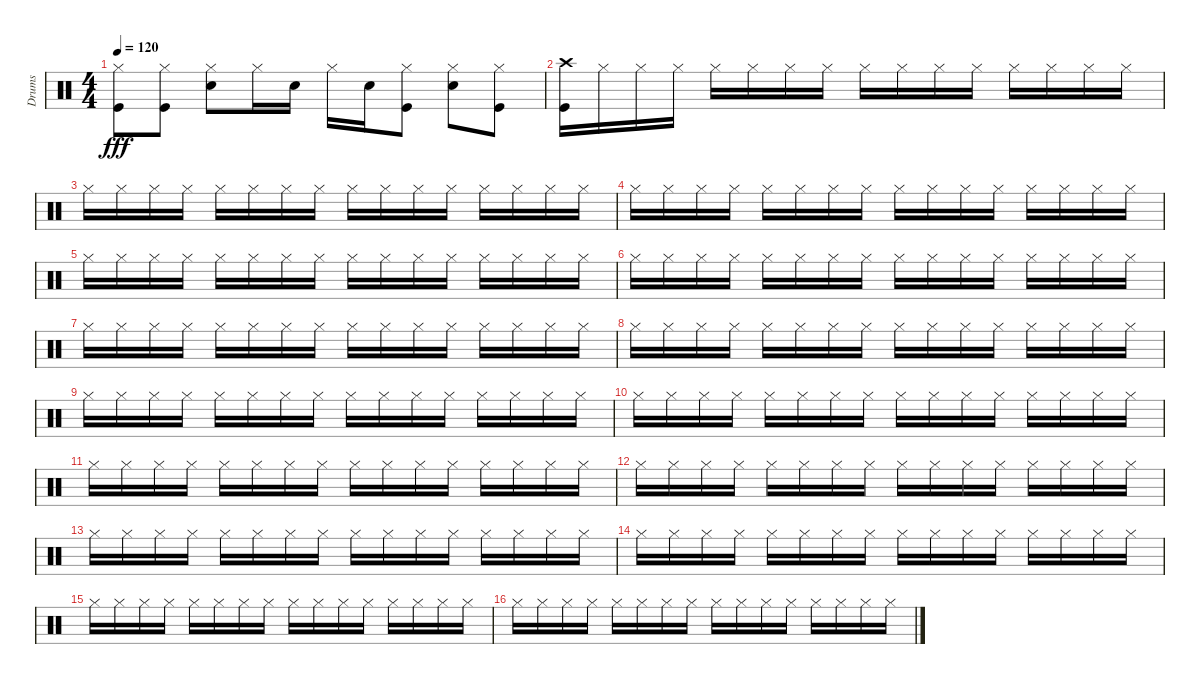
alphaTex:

\track ("Drums" "Drums") {instrument percussion}
\staff {score}
\articulation defaults
\ts (4 4)
\tempo 120
\clef neutral
\ks c
("Hi-Hat (closed)" "Kick (hit)").8{dy fff} ("Hi-Hat (closed)" "Kick (hit)").8 ("Hi-Hat (closed)" "Snare (hit) 2").8 "Hi-Hat (closed)".16 "Snare (hit) 2".16 "Hi-Hat (closed)".16 "Snare (hit) 2".16 ("Hi-Hat (closed)" "Kick (hit)").8 ("Hi-Hat (closed)" "Snare (hit) 2").8 ("Hi-Hat (closed)" "Kick (hit)").8 |
("Crash high (hit)" "Kick (hit)").16 "Hi-Hat (closed)".16 "Hi-Hat (closed)".16 "Hi-Hat (closed)".16 "Hi-Hat (closed)".16 "Hi-Hat (closed)".16 "Hi-Hat (closed)".16 "Hi-Hat (closed)".16 "Hi-Hat (closed)".16 "Hi-Hat (closed)".16 "Hi-Hat (closed)".16 "Hi-Hat (closed)".16 "Hi-Hat (closed)".16 "Hi-Hat (closed)".16 "Hi-Hat (closed)".16 "Hi-Hat (closed)".16 |
"Hi-Hat (closed)".16 "Hi-Hat (closed)".16 "Hi-Hat (closed)".16 "Hi-Hat (closed)".16 "Hi-Hat (closed)".16 "Hi-Hat (closed)".16 "Hi-Hat (closed)".16 "Hi-Hat (closed)".16 "Hi-Hat (closed)".16 "Hi-Hat (closed)".16 "Hi-Hat (closed)".16 "Hi-Hat (closed)".16 "Hi-Hat (closed)".16 "Hi-Hat (closed)".16 "Hi-Hat (closed)".16 "Hi-Hat (closed)".16 |
"Hi-Hat (closed)".16 "Hi-Hat (closed)".16 "Hi-Hat (closed)".16 "Hi-Hat (closed)".16 "Hi-Hat (closed)".16 "Hi-Hat (closed)".16 "Hi-Hat (closed)".16 "Hi-Hat (closed)".16 "Hi-Hat (closed)".16 "Hi-Hat (closed)".16 "Hi-Hat (closed)".16 "Hi-Hat (closed)".16 "Hi-Hat (closed)".16 "Hi-Hat (closed)".16 "Hi-Hat (closed)".16 "Hi-Hat (closed)".16 |
"Hi-Hat (closed)".16 "Hi-Hat (closed)".16 "Hi-Hat (closed)".16 "Hi-Hat (closed)".16 "Hi-Hat (closed)".16 "Hi-Hat (closed)".16 "Hi-Hat (closed)".16 "Hi-Hat (closed)".16 "Hi-Hat (closed)".16 "Hi-Hat (closed)".16 "Hi-Hat (closed)".16 "Hi-Hat (closed)".16 "Hi-Hat (closed)".16 "Hi-Hat (closed)".16 "Hi-Hat (closed)".16 "Hi-Hat (closed)".16 |
"Hi-Hat (closed)".16 "Hi-Hat (closed)".16 "Hi-Hat (closed)".16 "Hi-Hat (closed)".16 "Hi-Hat (closed)".16 "Hi-Hat (closed)".16 "Hi-Hat (closed)".16 "Hi-Hat (closed)".16 "Hi-Hat (closed)".16 "Hi-Hat (closed)".16 "Hi-Hat (closed)".16 "Hi-Hat (closed)".16 "Hi-Hat (closed)".16 "Hi-Hat (closed)".16 "Hi-Hat (closed)".16 "Hi-Hat (closed)".16 |
"Hi-Hat (closed)".16 "Hi-Hat (closed)".16 "Hi-Hat (closed)".16 "Hi-Hat (closed)".16 "Hi-Hat (closed)".16 "Hi-Hat (closed)".16 "Hi-Hat (closed)".16 "Hi-Hat (closed)".16 "Hi-Hat (closed)".16 "Hi-Hat (closed)".16 "Hi-Hat (closed)".16 "Hi-Hat (closed)".16 "Hi-Hat (closed)".16 "Hi-Hat (closed)".16 "Hi-Hat (closed)".16 "Hi-Hat (closed)".16 |
"Hi-Hat (closed)".16 "Hi-Hat (closed)".16 "Hi-Hat (closed)".16 "Hi-Hat (closed)".16 "Hi-Hat (closed)".16 "Hi-Hat (closed)".16 "Hi-Hat (closed)".16 "Hi-Hat (closed)".16 "Hi-Hat (closed)".16 "Hi-Hat (closed)".16 "Hi-Hat (closed)".16 "Hi-Hat (closed)".16 "Hi-Hat (closed)".16 "Hi-Hat (closed)".16 "Hi-Hat (closed)".16 "Hi-Hat (closed)".16 |
"Hi-Hat (closed)".16 "Hi-Hat (closed)".16 "Hi-Hat (closed)".16 "Hi-Hat (closed)".16 "Hi-Hat (closed)".16 "Hi-Hat (closed)".16 "Hi-Hat (closed)".16 "Hi-Hat (closed)".16 "Hi-Hat (closed)".16 "Hi-Hat (closed)".16 "Hi-Hat (closed)".16 "Hi-Hat (closed)".16 "Hi-Hat (closed)".16 "Hi-Hat (closed)".16 "Hi-Hat (closed)".16 "Hi-Hat (closed)".16 |
"Hi-Hat (closed)".16 "Hi-Hat (closed)".16 "Hi-Hat (closed)".16 "Hi-Hat (closed)".16 "Hi-Hat (closed)".16 "Hi-Hat (closed)".16 "Hi-Hat (closed)".16 "Hi-Hat (closed)".16 "Hi-Hat (closed)".16 "Hi-Hat (closed)".16 "Hi-Hat (closed)".16 "Hi-Hat (closed)".16 "Hi-Hat (closed)".16 "Hi-Hat (closed)".16 "Hi-Hat (closed)".16 "Hi-Hat (closed)".16 |
"Hi-Hat (closed)".16 "Hi-Hat (closed)".16 "Hi-Hat (closed)".16 "Hi-Hat (closed)".16 "Hi-Hat (closed)".16 "Hi-Hat (closed)".16 "Hi-Hat (closed)".16 "Hi-Hat (closed)".16 "Hi-Hat (closed)".16 "Hi-Hat (closed)".16 "Hi-Hat (closed)".16 "Hi-Hat (closed)".16 "Hi-Hat (closed)".16 "Hi-Hat (closed)".16 "Hi-Hat (closed)".16 "Hi-Hat (closed)".16 |
"Hi-Hat (closed)".16 "Hi-Hat (closed)".16 "Hi-Hat (closed)".16 "Hi-Hat (closed)".16 "Hi-Hat (closed)".16 "Hi-Hat (closed)".16 "Hi-Hat (closed)".16 "Hi-Hat (closed)".16 "Hi-Hat (closed)".16 "Hi-Hat (closed)".16 "Hi-Hat (closed)".16 "Hi-Hat (closed)".16 "Hi-Hat (closed)".16 "Hi-Hat (closed)".16 "Hi-Hat (closed)".16 "Hi-Hat (closed)".16 |
"Hi-Hat (closed)".16 "Hi-Hat (closed)".16 "Hi-Hat (closed)".16 "Hi-Hat (closed)".16 "Hi-Hat (closed)".16 "Hi-Hat (closed)".16 "Hi-Hat (closed)".16 "Hi-Hat (closed)".16 "Hi-Hat (closed)".16 "Hi-Hat (closed)".16 "Hi-Hat (closed)".16 "Hi-Hat (closed)".16 "Hi-Hat (closed)".16 "Hi-Hat (closed)".16 "Hi-Hat (closed)".16 "Hi-Hat (closed)".16 |
"Hi-Hat (closed)".16 "Hi-Hat (closed)".16 "Hi-Hat (closed)".16 "Hi-Hat (closed)".16 "Hi-Hat (closed)".16 "Hi-Hat (closed)".16 "Hi-Hat (closed)".16 "Hi-Hat (closed)".16 "Hi-Hat (closed)".16 "Hi-Hat (closed)".16 "Hi-Hat (closed)".16 "Hi-Hat (closed)".16 "Hi-Hat (closed)".16 "Hi-Hat (closed)".16 "Hi-Hat (closed)".16 "Hi-Hat (closed)".16 |
"Hi-Hat (closed)".16 "Hi-Hat (closed)".16 "Hi-Hat (closed)".16 "Hi-Hat (closed)".16 "Hi-Hat (closed)".16 "Hi-Hat (closed)".16 "Hi-Hat (closed)".16 "Hi-Hat (closed)".16 "Hi-Hat (closed)".16 "Hi-Hat (closed)".16 "Hi-Hat (closed)".16 "Hi-Hat (closed)".16 "Hi-Hat (closed)".16 "Hi-Hat (closed)".16 "Hi-Hat (closed)".16 "Hi-Hat (closed)".16 |
"Hi-Hat (closed)".16 "Hi-Hat (closed)".16 "Hi-Hat (closed)".16 "Hi-Hat (closed)".16 "Hi-Hat (closed)".16 "Hi-Hat (closed)".16 "Hi-Hat (closed)".16 "Hi-Hat (closed)".16 "Hi-Hat (closed)".16 "Hi-Hat (closed)".16 "Hi-Hat (closed)".16 "Hi-Hat (closed)".16 "Hi-Hat (closed)".16 "Hi-Hat (closed)".16 "Hi-Hat (closed)".16 "Hi-Hat (closed)".16
